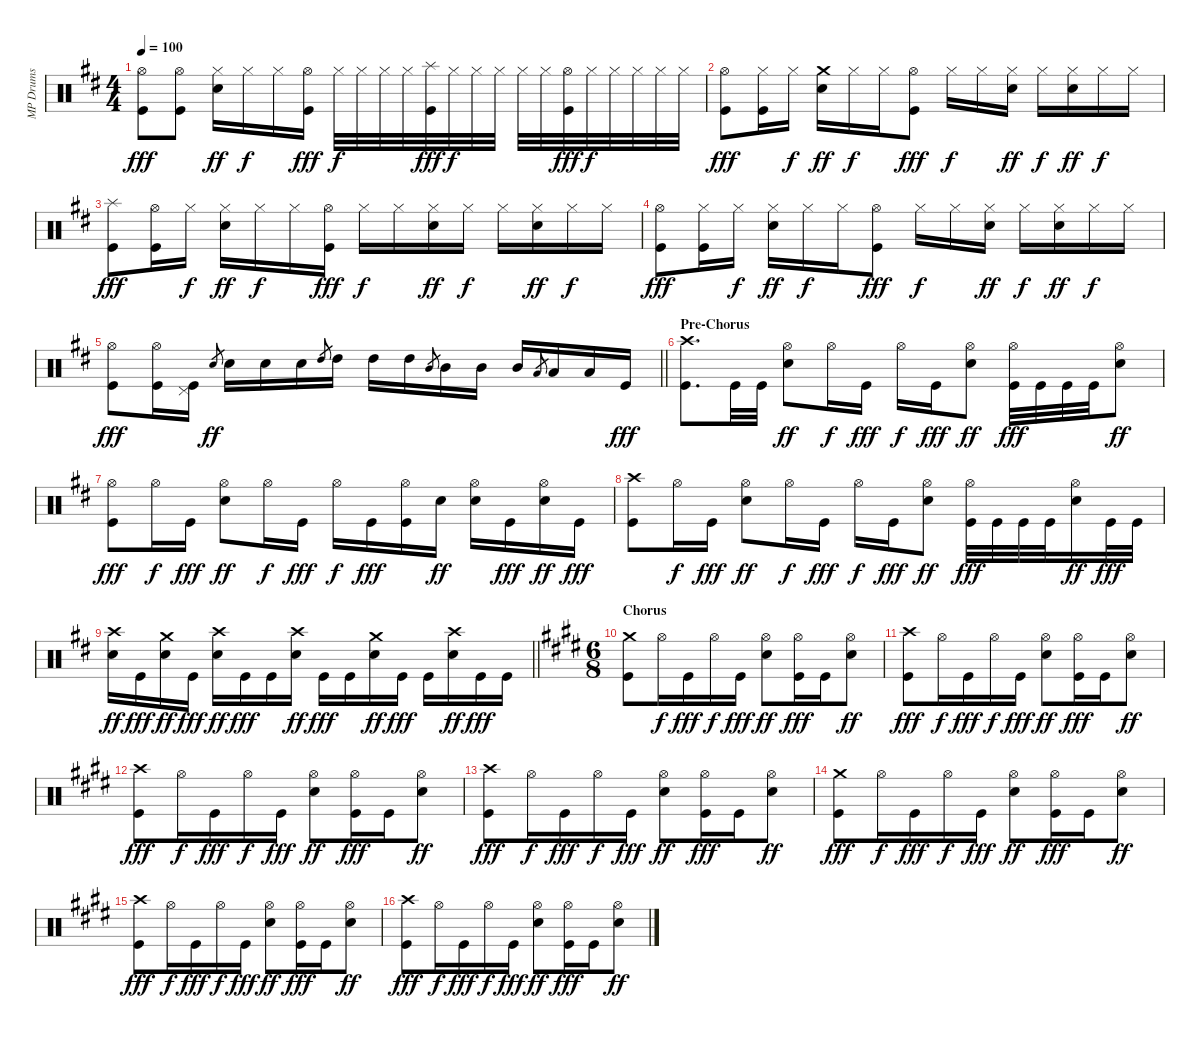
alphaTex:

\track ("MP Drums" "MP Drums") {instrument percussion}
\staff {score}
\articulation defaults
\ts (4 4)
\tempo 100
\clef neutral
\ks d
("Hi-Hat (open)" "Kick (hit)").8{dy fff} ("Hi-Hat (open)" "Kick (hit)").8 ("Hi-Hat (closed)" "Snare (hit) 2").16{dy ff} "Hi-Hat (closed)".16{dy f} "Hi-Hat (closed)".16 ("Hi-Hat (open)" "Kick (hit)").16{dy fff} "Hi-Hat (closed)".32{dy f} "Hi-Hat (closed)".32 "Hi-Hat (closed)".32 "Hi-Hat (closed)".32 ("Splash (hit)" "Kick (hit)").32{dy fff} "Hi-Hat (closed)".32{dy f} "Hi-Hat (closed)".32 "Hi-Hat (closed)".32 "Hi-Hat (closed)".32 "Hi-Hat (closed)".32 ("Hi-Hat (open)" "Kick (hit)").32{dy fff} "Hi-Hat (closed)".32{dy f} "Hi-Hat (closed)".32 "Hi-Hat (closed)".32 "Hi-Hat (closed)".32 "Hi-Hat (closed)".32 |
("Hi-Hat (open)" "Kick (hit)").8{dy fff} ("Hi-Hat (closed)" "Kick (hit)").16 "Hi-Hat (closed)".16{dy f} ("Crash medium (hit)" "Snare (hit) 2").16{dy ff} "Hi-Hat (closed)".16{dy f} "Hi-Hat (closed)".16 ("Hi-Hat (open)" "Kick (hit)").8{dy fff} "Hi-Hat (closed)".16{dy f} "Hi-Hat (closed)".16 ("Hi-Hat (closed)" "Snare (hit) 2").16{dy ff} "Hi-Hat (closed)".16{dy f} ("Hi-Hat (closed)" "Snare (hit) 2").16{dy ff} "Hi-Hat (closed)".16{dy f} "Hi-Hat (closed)".16 |
("Splash (hit)" "Kick (hit)").8{dy fff} ("Hi-Hat (open)" "Kick (hit)").16 "Hi-Hat (closed)".16{dy f} ("Hi-Hat (closed)" "Snare (hit) 2").16{dy ff} "Hi-Hat (closed)".16{dy f} "Hi-Hat (closed)".16 ("Hi-Hat (open)" "Kick (hit)").16{dy fff} "Hi-Hat (closed)".16{dy f} "Hi-Hat (closed)".16 ("Hi-Hat (closed)" "Snare (hit) 2").16{dy ff} "Hi-Hat (closed)".16{dy f} "Hi-Hat (closed)".16 ("Hi-Hat (closed)" "Snare (hit) 2").16{dy ff} "Hi-Hat (closed)".16{dy f} "Hi-Hat (closed)".16 |
("Hi-Hat (open)" "Kick (hit)").8{dy fff} ("Hi-Hat (closed)" "Kick (hit)").16 "Hi-Hat (closed)".16{dy f} ("Hi-Hat (closed)" "Snare (hit) 2").16{dy ff} "Hi-Hat (closed)".16{dy f} "Hi-Hat (closed)".16 ("Hi-Hat (open)" "Kick (hit)").8{dy fff} "Hi-Hat (closed)".16{dy f} "Hi-Hat (closed)".16 ("Hi-Hat (closed)" "Snare (hit) 2").16{dy ff} "Hi-Hat (closed)".16{dy f} ("Hi-Hat (closed)" "Snare (hit) 2").16{dy ff} "Hi-Hat (closed)".16{dy f} "Hi-Hat (closed)".16 |
\barLineRight lightlight
("Hi-Hat (open)" "Kick (hit)").8{dy fff} ("Hi-Hat (open)" "Kick (hit)").16 ("Pedal Hi-Hat (hit)" "Kick (hit)").16 "Snare (hit) 2".8{gr dy ff} "Snare (hit) 2".16 "Snare (hit) 2".16 "Snare (hit) 2".16 "High Tom (hit)".8{gr} "High Tom (hit)".16 "High Tom (hit)".16 "High Tom (hit)".16 "Mid Tom (hit)".8{gr} "Mid Tom (hit)".16 "Mid Tom (hit)".16 "Mid Tom (hit)".16 "Low Tom (hit)".8{gr} "Low Tom (hit)".16 "Low Tom (hit)".16 "Kick (hit)".16{dy fff} |
\section ("" "Pre-Chorus")
("Crash high (hit)" "Kick (hit)").8{d} "Kick (hit)".32 "Kick (hit)".32 ("Hi-Hat (open)" "Snare (hit) 2").8{dy ff} "Hi-Hat (open)".16{dy f} "Kick (hit)".16{dy fff} "Hi-Hat (open)".16{dy f} "Kick (hit)".16{dy fff} ("Hi-Hat (open)" "Snare (hit) 2").8{dy ff} ("Hi-Hat (open)" "Kick (hit)").32{dy fff} "Kick (hit)".32 "Kick (hit)".32 "Kick (hit)".32 ("Hi-Hat (open)" "Snare (hit) 2").8{dy ff} |
("Hi-Hat (open)" "Kick (hit)").8{dy fff} "Hi-Hat (open)".16{dy f} "Kick (hit)".16{dy fff} ("Hi-Hat (open)" "Snare (hit) 2").8{dy ff} "Hi-Hat (open)".16{dy f} "Kick (hit)".16{dy fff} "Hi-Hat (open)".16{dy f} "Kick (hit)".16{dy fff} ("Hi-Hat (open)" "Kick (hit)").16 "Snare (hit) 2".16{dy ff} ("Hi-Hat (open)" "Snare (hit) 2").16 "Kick (hit)".16{dy fff} ("Hi-Hat (open)" "Snare (hit) 2").16{dy ff} "Kick (hit)".16{dy fff} |
("Crash high (hit)" "Kick (hit)").8 "Hi-Hat (open)".16{dy f} "Kick (hit)".16{dy fff} ("Hi-Hat (open)" "Snare (hit) 2").8{dy ff} "Hi-Hat (open)".16{dy f} "Kick (hit)".16{dy fff} "Hi-Hat (open)".16{dy f} "Kick (hit)".16{dy fff} ("Hi-Hat (open)" "Snare (hit) 2").8{dy ff} ("Hi-Hat (open)" "Kick (hit)").32{dy fff} "Kick (hit)".32 "Kick (hit)".32 "Kick (hit)".32 ("Hi-Hat (open)" "Snare (hit) 2").16{dy ff} "Kick (hit)".32{dy fff} "Kick (hit)".32 |
\barLineRight lightlight
("Crash high (hit)" "Snare (hit) 2").16{dy ff} "Kick (hit)".16{dy fff} ("Crash medium (hit)" "Snare (hit) 2").16{dy ff} "Kick (hit)".16{dy fff} ("Crash high (hit)" "Snare (hit) 2").16{dy ff} "Kick (hit)".16{dy fff} "Kick (hit)".16 ("Crash high (hit)" "Snare (hit) 2").16{dy ff} "Kick (hit)".16{dy fff} "Kick (hit)".16 ("Crash medium (hit)" "Snare (hit) 2").16{dy ff} "Kick (hit)".16{dy fff} "Kick (hit)".16 ("Crash high (hit)" "Snare (hit) 2").16{dy ff} "Kick (hit)".16{dy fff} "Kick (hit)".16 |
\ts (6 8)
\section ("" "Chorus")
\ks e
("Crash medium (hit)" "Kick (hit)").8 "Hi-Hat (open)".16{dy f} "Kick (hit)".16{dy fff} "Hi-Hat (open)".16{dy f} "Kick (hit)".16{dy fff} ("Hi-Hat (open)" "Snare (hit) 2").8{dy ff} ("Hi-Hat (open)" "Kick (hit)").16{dy fff} "Kick (hit)".16 ("Hi-Hat (open)" "Snare (hit) 2").8{dy ff} |
("Crash high (hit)" "Kick (hit)").8{dy fff} "Hi-Hat (open)".16{dy f} "Kick (hit)".16{dy fff} "Hi-Hat (open)".16{dy f} "Kick (hit)".16{dy fff} ("Hi-Hat (open)" "Snare (hit) 2").8{dy ff} ("Hi-Hat (open)" "Kick (hit)").16{dy fff} "Kick (hit)".16 ("Hi-Hat (open)" "Snare (hit) 2").8{dy ff} |
("Crash high (hit)" "Kick (hit)").8{dy fff} "Hi-Hat (open)".16{dy f} "Kick (hit)".16{dy fff} "Hi-Hat (open)".16{dy f} "Kick (hit)".16{dy fff} ("Hi-Hat (open)" "Snare (hit) 2").8{dy ff} ("Hi-Hat (open)" "Kick (hit)").16{dy fff} "Kick (hit)".16 ("Hi-Hat (open)" "Snare (hit) 2").8{dy ff} |
("Crash high (hit)" "Kick (hit)").8{dy fff} "Hi-Hat (open)".16{dy f} "Kick (hit)".16{dy fff} "Hi-Hat (open)".16{dy f} "Kick (hit)".16{dy fff} ("Hi-Hat (open)" "Snare (hit) 2").8{dy ff} ("Hi-Hat (open)" "Kick (hit)").16{dy fff} "Kick (hit)".16 ("Hi-Hat (open)" "Snare (hit) 2").8{dy ff} |
("Crash medium (hit)" "Kick (hit)").8{dy fff} "Hi-Hat (open)".16{dy f} "Kick (hit)".16{dy fff} "Hi-Hat (open)".16{dy f} "Kick (hit)".16{dy fff} ("Hi-Hat (open)" "Snare (hit) 2").8{dy ff} ("Hi-Hat (open)" "Kick (hit)").16{dy fff} "Kick (hit)".16 ("Hi-Hat (open)" "Snare (hit) 2").8{dy ff} |
("Crash high (hit)" "Kick (hit)").8{dy fff} "Hi-Hat (open)".16{dy f} "Kick (hit)".16{dy fff} "Hi-Hat (open)".16{dy f} "Kick (hit)".16{dy fff} ("Hi-Hat (open)" "Snare (hit) 2").8{dy ff} ("Hi-Hat (open)" "Kick (hit)").16{dy fff} "Kick (hit)".16 ("Hi-Hat (open)" "Snare (hit) 2").8{dy ff} |
("Crash high (hit)" "Kick (hit)").8{dy fff} "Hi-Hat (open)".16{dy f} "Kick (hit)".16{dy fff} "Hi-Hat (open)".16{dy f} "Kick (hit)".16{dy fff} ("Hi-Hat (open)" "Snare (hit) 2").8{dy ff} ("Hi-Hat (open)" "Kick (hit)").16{dy fff} "Kick (hit)".16 ("Hi-Hat (open)" "Snare (hit) 2").8{dy ff}
